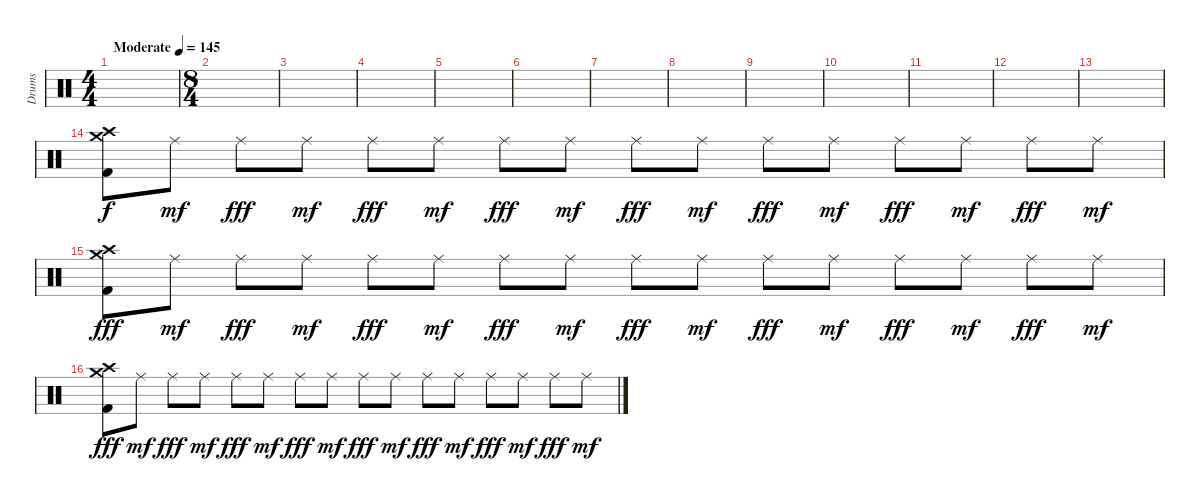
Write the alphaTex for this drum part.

\track ("Drums" "Drums") {instrument percussion}
\staff {score}
\articulation defaults
\ts (4 4)
\tempo (145 "Moderate")
\clef neutral
\ks c
|
\ts (8 4)
|
|
|
|
|
|
|
|
|
|
|
|
("Crash high (hit)" "Crash medium (hit)" "Kick (hit) 2").8 "Ride (middle)".8{dy mf} "Ride (middle)".8{dy fff} "Ride (middle)".8{dy mf} "Ride (middle)".8{dy fff} "Ride (middle)".8{dy mf} "Ride (middle)".8{dy fff} "Ride (middle)".8{dy mf} "Ride (middle)".8{dy fff} "Ride (middle)".8{dy mf} "Ride (middle)".8{dy fff} "Ride (middle)".8{dy mf} "Ride (middle)".8{dy fff} "Ride (middle)".8{dy mf} "Ride (middle)".8{dy fff} "Ride (middle)".8{dy mf} |
("Crash high (hit)" "Crash medium (hit)" "Kick (hit) 2").8{dy fff} "Ride (middle)".8{dy mf} "Ride (middle)".8{dy fff} "Ride (middle)".8{dy mf} "Ride (middle)".8{dy fff} "Ride (middle)".8{dy mf} "Ride (middle)".8{dy fff} "Ride (middle)".8{dy mf} "Ride (middle)".8{dy fff} "Ride (middle)".8{dy mf} "Ride (middle)".8{dy fff} "Ride (middle)".8{dy mf} "Ride (middle)".8{dy fff} "Ride (middle)".8{dy mf} "Ride (middle)".8{dy fff} "Ride (middle)".8{dy mf} |
("Crash high (hit)" "Crash medium (hit)" "Kick (hit) 2").8{dy fff} "Ride (middle)".8{dy mf} "Ride (middle)".8{dy fff} "Ride (middle)".8{dy mf} "Ride (middle)".8{dy fff} "Ride (middle)".8{dy mf} "Ride (middle)".8{dy fff} "Ride (middle)".8{dy mf} "Ride (middle)".8{dy fff} "Ride (middle)".8{dy mf} "Ride (middle)".8{dy fff} "Ride (middle)".8{dy mf} "Ride (middle)".8{dy fff} "Ride (middle)".8{dy mf} "Ride (middle)".8{dy fff} "Ride (middle)".8{dy mf}
